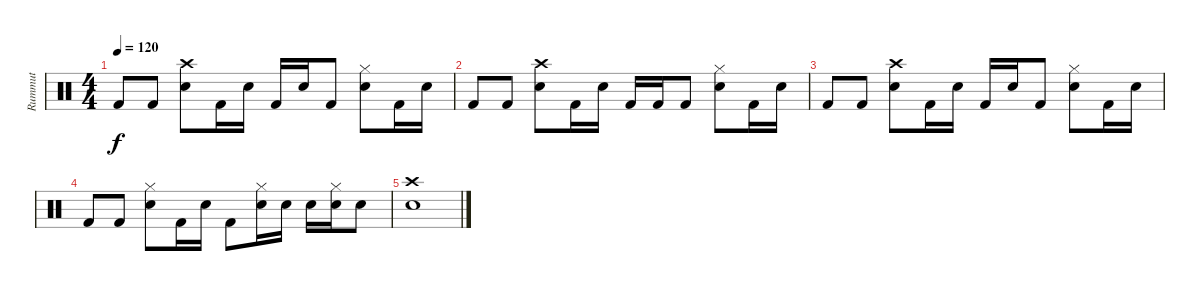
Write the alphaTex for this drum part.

\track ("Rummut" "Rummut") {instrument percussion}
\staff {score}
\articulation defaults
\ts (4 4)
\tempo 120
\clef neutral
\ks c "Kick (hit) 2".8{dy f} "Kick (hit) 2".8
("Crash high (hit)" "Snare (hit) 2").8 "Kick (hit) 2".16 "Snare (hit) 2".16 "Kick (hit) 2".16 "Snare (hit) 2".16 "Kick (hit) 2".8 ("Hi-Hat (closed)" "Snare (hit) 2").8 "Kick (hit) 2".16 "Snare (hit) 2".16 |
"Kick (hit) 2".8 "Kick (hit) 2".8 ("Crash high (hit)" "Snare (hit) 2").8 "Kick (hit) 2".16 "Snare (hit) 2".16 "Kick (hit) 2".16 "Kick (hit) 2".16 "Kick (hit) 2".8 ("Hi-Hat (closed)" "Snare (hit) 2").8 "Kick (hit) 2".16 "Snare (hit) 2".16 |
"Kick (hit) 2".8 "Kick (hit) 2".8 ("Crash high (hit)" "Snare (hit) 2").8 "Kick (hit) 2".16 "Snare (hit) 2".16 "Kick (hit) 2".16 "Snare (hit) 2".16 "Kick (hit) 2".8 ("Hi-Hat (closed)" "Snare (hit) 2").8 "Kick (hit) 2".16 "Snare (hit) 2".16 |
"Kick (hit) 2".8 "Kick (hit) 2".8 ("Hi-Hat (closed)" "Snare (hit) 2").8 "Kick (hit) 2".16 "Snare (hit) 2".16 "Kick (hit) 2".8 ("Hi-Hat (closed)" "Snare (hit) 2").16 "Snare (hit) 2".16 "Snare (hit) 2".16 ("Hi-Hat (closed)" "Snare (hit) 2").16 "Snare (hit) 2".8 |
("Crash high (hit)" "Snare (hit) 2").1
